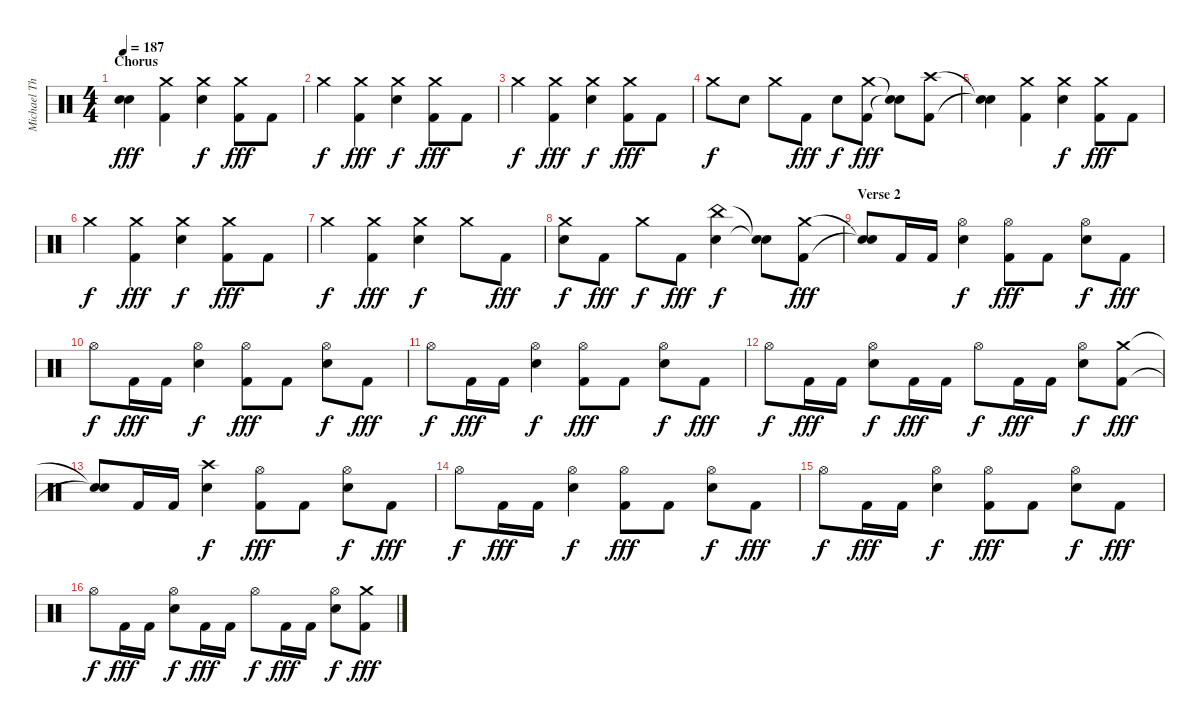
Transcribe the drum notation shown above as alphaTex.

\track ("Michael Thomas" "Michael Th") {instrument percussion}
\staff {score}
\articulation defaults
\ts (4 4)
\section ("" "Chorus")
\tempo 187
\clef neutral
\ks c
("Snare (hit)"{t} "Snare (hit)"{t}).4{dy fff} ("Crash medium (hit)" "Kick (hit) 2").4 ("Crash medium (hit)" "Electric Snare (hit)").4{dy f} ("Crash medium (hit)" "Kick (hit) 2").8{dy fff} "Kick (hit) 2".8 |
"Crash medium (hit)".4{dy f} ("Crash medium (hit)" "Kick (hit) 2").4{dy fff} ("Crash medium (hit)" "Electric Snare (hit)").4{dy f} ("Crash medium (hit)" "Kick (hit) 2").8{dy fff} "Kick (hit) 2".8 |
"Crash medium (hit)".4{dy f} ("Crash medium (hit)" "Kick (hit) 2").4{dy fff} ("Crash medium (hit)" "Electric Snare (hit)").4{dy f} ("Crash medium (hit)" "Kick (hit) 2").8{dy fff} "Kick (hit) 2".8 |
"Crash medium (hit)".8{dy f} "Electric Snare (hit)".8 "Crash medium (hit)".8 "Kick (hit) 2".8{dy fff} "Electric Snare (hit)".8{dy f} ("Crash medium (hit)" "Kick (hit) 2").8{dy fff} ("Snare (hit)"{t} "Snare (hit)"{t}).8 ("Crash high (hit)" "Kick (hit) 2").8 |
("Snare (hit)"{t} "Snare (hit)"{t}).4 ("Crash medium (hit)" "Kick (hit) 2").4 ("Crash medium (hit)" "Electric Snare (hit)").4{dy f} ("Crash medium (hit)" "Kick (hit) 2").8{dy fff} "Kick (hit) 2".8 |
"Crash medium (hit)".4{dy f} ("Crash medium (hit)" "Kick (hit) 2").4{dy fff} ("Crash medium (hit)" "Electric Snare (hit)").4{dy f} ("Crash medium (hit)" "Kick (hit) 2").8{dy fff} "Kick (hit) 2".8 |
"Crash medium (hit)".4{dy f} ("Crash medium (hit)" "Kick (hit) 2").4{dy fff} ("Crash medium (hit)" "Electric Snare (hit)").4{dy f} "Crash medium (hit)".8 "Kick (hit) 2".8{dy fff} |
("Crash medium (hit)" "Electric Snare (hit)").8{dy f} "Kick (hit) 2".8{dy fff} "Crash medium (hit)".8{dy f} "Kick (hit) 2".8{dy fff} ("China (hit)" "Electric Snare (hit)").4{dy f} ("Snare (hit)"{t} "Snare (hit)"{t}).8 ("Crash medium (hit)" "Kick (hit) 2").8{dy fff} |
\section ("" "Verse 2")
("Snare (hit)"{t} "Snare (hit)"{t}).8 "Kick (hit) 2".16 "Kick (hit) 2".16 ("Hi-Hat (open)" "Electric Snare (hit)").4{dy f} ("Hi-Hat (open)" "Kick (hit) 2").8{dy fff} "Kick (hit) 2".8 ("Hi-Hat (open)" "Electric Snare (hit)").8{dy f} "Kick (hit) 2".8{dy fff} |
"Hi-Hat (open)".8{dy f} "Kick (hit) 2".16{dy fff} "Kick (hit) 2".16 ("Hi-Hat (open)" "Electric Snare (hit)").4{dy f} ("Hi-Hat (open)" "Kick (hit) 2").8{dy fff} "Kick (hit) 2".8 ("Hi-Hat (open)" "Electric Snare (hit)").8{dy f} "Kick (hit) 2".8{dy fff} |
"Hi-Hat (open)".8{dy f} "Kick (hit) 2".16{dy fff} "Kick (hit) 2".16 ("Hi-Hat (open)" "Electric Snare (hit)").4{dy f} ("Hi-Hat (open)" "Kick (hit) 2").8{dy fff} "Kick (hit) 2".8 ("Hi-Hat (open)" "Electric Snare (hit)").8{dy f} "Kick (hit) 2".8{dy fff} |
"Hi-Hat (open)".8{dy f} "Kick (hit) 2".16{dy fff} "Kick (hit) 2".16 ("Hi-Hat (open)" "Electric Snare (hit)").8{dy f} "Kick (hit) 2".16{dy fff} "Kick (hit) 2".16 "Hi-Hat (open)".8{dy f} "Kick (hit) 2".16{dy fff} "Kick (hit) 2".16 ("Hi-Hat (open)" "Electric Snare (hit)").8{dy f} ("Crash medium (hit)" "Kick (hit) 2").8{dy fff} |
("Snare (hit)"{t} "Snare (hit)"{t}).8 "Kick (hit) 2".16 "Kick (hit) 2".16 ("Crash high (hit)" "Electric Snare (hit)").4{dy f} ("Hi-Hat (open)" "Kick (hit) 2").8{dy fff} "Kick (hit) 2".8 ("Hi-Hat (open)" "Electric Snare (hit)").8{dy f} "Kick (hit) 2".8{dy fff} |
"Hi-Hat (open)".8{dy f} "Kick (hit) 2".16{dy fff} "Kick (hit) 2".16 ("Hi-Hat (open)" "Electric Snare (hit)").4{dy f} ("Hi-Hat (open)" "Kick (hit) 2").8{dy fff} "Kick (hit) 2".8 ("Hi-Hat (open)" "Electric Snare (hit)").8{dy f} "Kick (hit) 2".8{dy fff} |
"Hi-Hat (open)".8{dy f} "Kick (hit) 2".16{dy fff} "Kick (hit) 2".16 ("Hi-Hat (open)" "Electric Snare (hit)").4{dy f} ("Hi-Hat (open)" "Kick (hit) 2").8{dy fff} "Kick (hit) 2".8 ("Hi-Hat (open)" "Electric Snare (hit)").8{dy f} "Kick (hit) 2".8{dy fff} |
"Hi-Hat (open)".8{dy f} "Kick (hit) 2".16{dy fff} "Kick (hit) 2".16 ("Hi-Hat (open)" "Electric Snare (hit)").8{dy f} "Kick (hit) 2".16{dy fff} "Kick (hit) 2".16 "Hi-Hat (open)".8{dy f} "Kick (hit) 2".16{dy fff} "Kick (hit) 2".16 ("Hi-Hat (open)" "Electric Snare (hit)").8{dy f} ("Crash medium (hit)" "Kick (hit) 2").8{dy fff}
